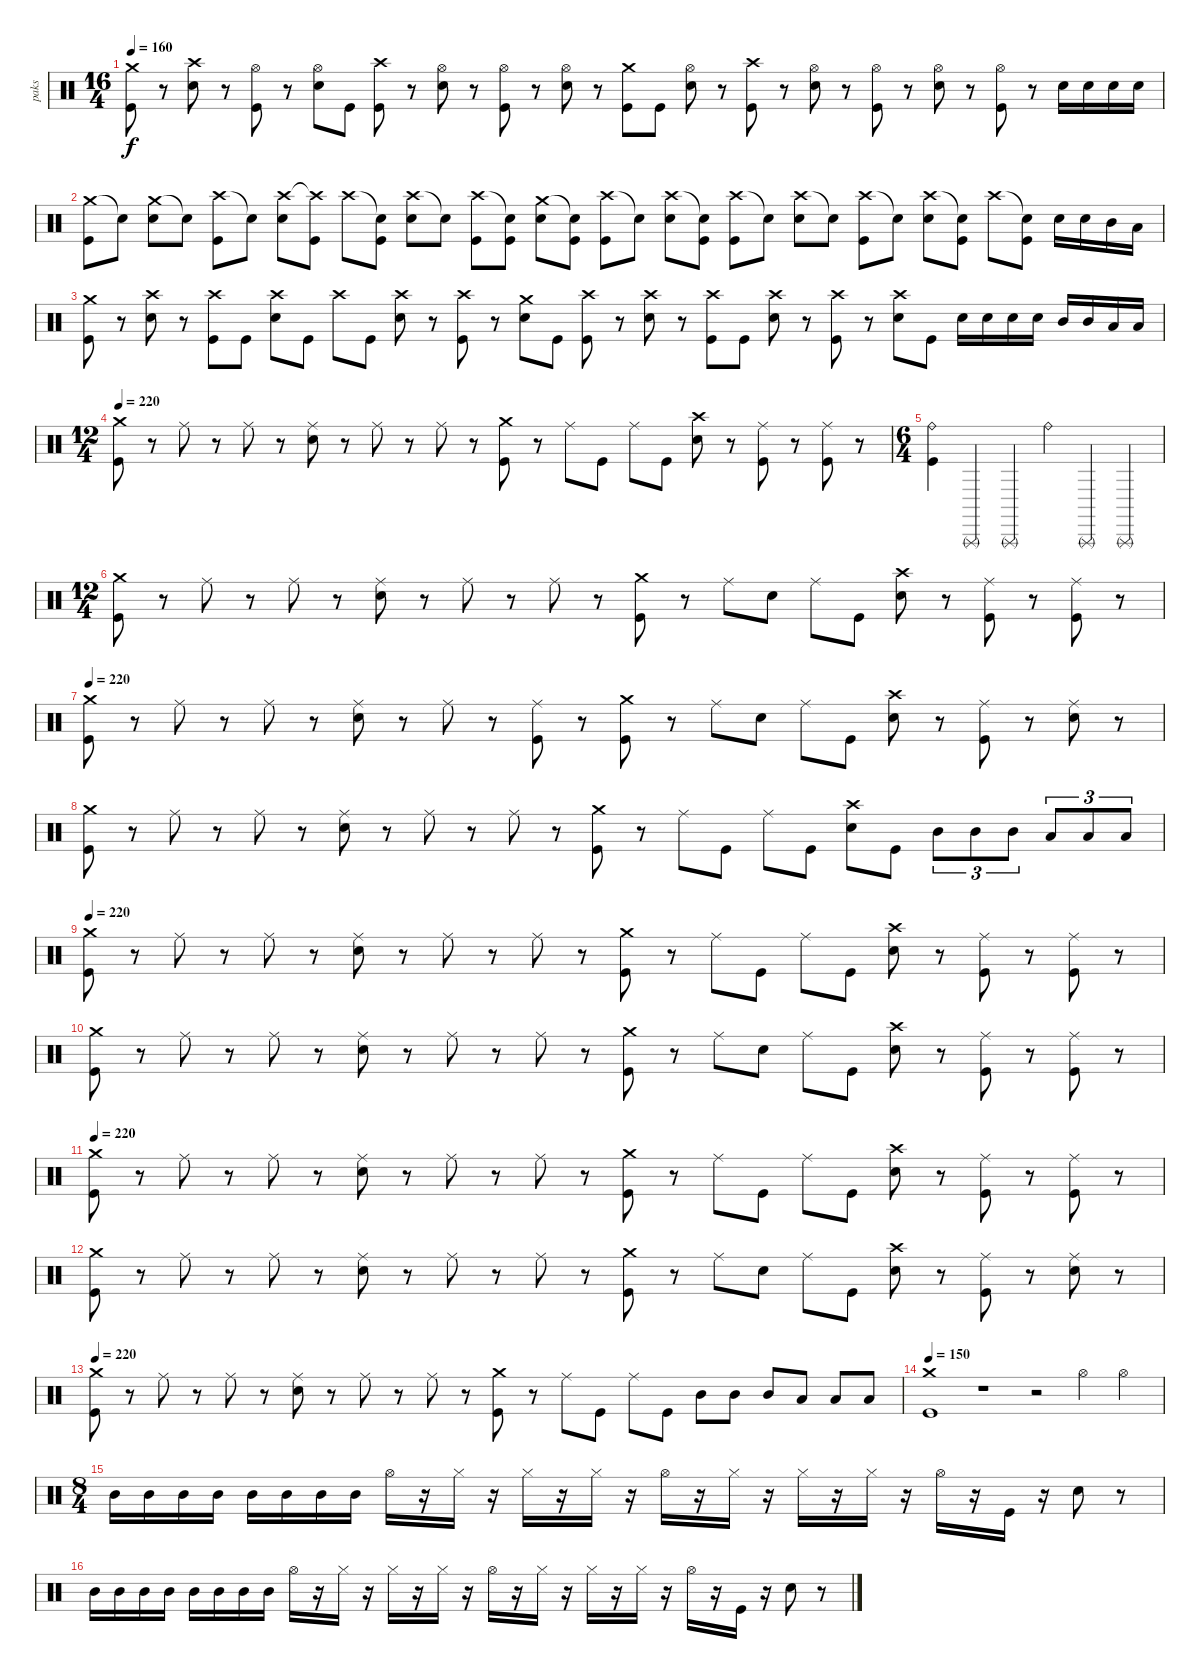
\track ("paks" "paks") {instrument percussion}
\staff {score}
\articulation defaults
\ts (16 4)
\tempo 160
\clef neutral
\ks c
("Crash medium (hit)" "Kick (hit)").8{dy f} r.8 ("Crash high (hit)" "Electric Snare (hit)").8 r.8 ("Hi-Hat (open)" "Kick (hit)").8 r.8 ("Hi-Hat (open)" "Electric Snare (hit)").8 "Kick (hit)".8 ("Crash high (hit)" "Kick (hit)").8 r.8 ("Hi-Hat (open)" "Electric Snare (hit)").8 r.8 ("Hi-Hat (open)" "Kick (hit)").8 r.8 ("Hi-Hat (open)" "Electric Snare (hit)").8 r.8 ("Crash medium (hit)" "Kick (hit)").8 "Kick (hit)".8 ("Hi-Hat (open)" "Electric Snare (hit)").8 r.8 ("Crash high (hit)" "Kick (hit)").8 r.8 ("Hi-Hat (open)" "Electric Snare (hit)").8 r.8 ("Hi-Hat (open)" "Kick (hit)").8 r.8 ("Hi-Hat (open)" "Electric Snare (hit)").8 r.8 ("Hi-Hat (open)" "Kick (hit)").8 r.8 "Electric Snare (hit)".16 "Electric Snare (hit)".16 "Electric Snare (hit)".16 "Electric Snare (hit)".16 |
("Crash medium (hit)" "Kick (hit)").8 "Snare (hit)"{t}.8 ("Crash medium (hit)" "Electric Snare (hit)").8 "Snare (hit)"{t}.8 ("Crash high (hit)" "Kick (hit)").8 "Snare (hit)"{t}.8 ("Crash high (hit)" "Electric Snare (hit)").8 ("Crash high (hit)"{t} "Kick (hit)").8 "Crash high (hit)".8 ("Snare (hit)"{t} "Kick (hit)").8 ("Crash high (hit)" "Electric Snare (hit)").8 "Snare (hit)"{t}.8 ("Crash high (hit)" "Kick (hit)").8 ("Snare (hit)"{t} "Kick (hit)").8 ("Crash medium (hit)" "Electric Snare (hit)").8 ("Snare (hit)"{t} "Kick (hit)").8 ("Crash high (hit)" "Kick (hit)").8 "Snare (hit)"{t}.8 ("Crash high (hit)" "Electric Snare (hit)").8 ("Snare (hit)"{t} "Kick (hit)").8 ("Crash high (hit)" "Kick (hit)").8 "Snare (hit)"{t}.8 ("Crash high (hit)" "Electric Snare (hit)").8 "Snare (hit)"{t}.8 ("Crash high (hit)" "Kick (hit)").8 "Snare (hit)"{t}.8 ("Crash high (hit)" "Electric Snare (hit)").8 ("Snare (hit)"{t} "Kick (hit)").8 "Crash high (hit)".8 ("Snare (hit)"{t} "Kick (hit)").8 "Electric Snare (hit)".16 "Electric Snare (hit)".16 "Mid Tom (hit)".16 "Low Floor Tom (hit)".16 |
("Crash medium (hit)" "Kick (hit)").8 r.8 ("Crash high (hit)" "Electric Snare (hit)").8 r.8 ("Crash high (hit)" "Kick (hit)").8 "Kick (hit)".8 ("Crash high (hit)" "Electric Snare (hit)").8 "Kick (hit)".8 "Crash high (hit)".8 "Kick (hit)".8 ("Crash high (hit)" "Electric Snare (hit)").8 r.8 ("Crash high (hit)" "Kick (hit)").8 r.8 ("Crash medium (hit)" "Electric Snare (hit)").8 "Kick (hit)".8 ("Crash high (hit)" "Kick (hit)").8 r.8 ("Crash high (hit)" "Electric Snare (hit)").8 r.8 ("Crash high (hit)" "Kick (hit)").8 "Kick (hit)".8 ("Crash high (hit)" "Electric Snare (hit)").8 r.8 ("Crash high (hit)" "Kick (hit)").8 r.8 ("Crash high (hit)" "Electric Snare (hit)").8 "Kick (hit)".8 "Electric Snare (hit)".16 "Electric Snare (hit)".16 "Electric Snare (hit)".16 "Electric Snare (hit)".16 "Mid Tom (hit)".16 "Mid Tom (hit)".16 "Low Floor Tom (hit)".16 "Low Floor Tom (hit)".16 |
\ts (12 4)
\tempo 220
("Crash medium (hit)" "Kick (hit)").8 r.8 "Ride (middle)".8 r.8 "Ride (middle)".8 r.8 ("Ride (middle)" "Electric Snare (hit)").8 r.8 "Ride (middle)".8 r.8 "Ride (middle)".8 r.8 ("Crash medium (hit)" "Kick (hit)").8 r.8 "Ride (middle)".8 "Kick (hit)".8 "Ride (middle)".8 "Kick (hit)".8 ("Crash high (hit)" "Electric Snare (hit)").8 r.8 ("Ride (middle)" "Kick (hit)").8 r.8 ("Ride (middle)" "Kick (hit)").8 r.8 |
\ts (6 4)
("Ride (bell)" "Kick (hit)").4 "Triangle (rnute)".4 "Triangle (rnute)".4 "Ride (bell)".4 "Triangle (rnute)".4 "Triangle (rnute)".4 |
\ts (12 4)
("Crash medium (hit)" "Kick (hit)").8 r.8 "Ride (middle)".8 r.8 "Ride (middle)".8 r.8 ("Ride (middle)" "Electric Snare (hit)").8 r.8 "Ride (middle)".8 r.8 "Ride (middle)".8 r.8 ("Crash medium (hit)" "Kick (hit)").8 r.8 "Ride (middle)".8 "Electric Snare (hit)".8 "Ride (middle)".8 "Kick (hit)".8 ("Crash high (hit)" "Electric Snare (hit)").8 r.8 ("Ride (middle)" "Kick (hit)").8 r.8 ("Ride (middle)" "Kick (hit)").8 r.8 |
\tempo 220
("Crash medium (hit)" "Kick (hit)").8 r.8 "Ride (middle)".8 r.8 "Ride (middle)".8 r.8 ("Ride (middle)" "Electric Snare (hit)").8 r.8 "Ride (middle)".8 r.8 ("Ride (middle)" "Kick (hit)").8 r.8 ("Crash medium (hit)" "Kick (hit)").8 r.8 "Ride (middle)".8 "Electric Snare (hit)".8 "Ride (middle)".8 "Kick (hit)".8 ("Crash high (hit)" "Electric Snare (hit)").8 r.8 ("Ride (middle)" "Kick (hit)").8 r.8 ("Ride (middle)" "Electric Snare (hit)").8 r.8 |
("Crash medium (hit)" "Kick (hit)").8 r.8 "Ride (middle)".8 r.8 "Ride (middle)".8 r.8 ("Ride (middle)" "Electric Snare (hit)").8 r.8 "Ride (middle)".8 r.8 "Ride (middle)".8 r.8 ("Crash medium (hit)" "Kick (hit)").8 r.8 "Ride (middle)".8 "Kick (hit)".8 "Ride (middle)".8 "Kick (hit)".8 ("Crash high (hit)" "Electric Snare (hit)").8 "Kick (hit)".8 "Mid Tom (hit)".8{tu (3 2)} "Mid Tom (hit)".8{tu (3 2)} "Mid Tom (hit)".8{tu (3 2)} "Low Floor Tom (hit)".8{tu (3 2)} "Low Floor Tom (hit)".8{tu (3 2)} "Low Floor Tom (hit)".8{tu (3 2)} |
\tempo 220
("Crash medium (hit)" "Kick (hit)").8 r.8 "Ride (middle)".8 r.8 "Ride (middle)".8 r.8 ("Ride (middle)" "Electric Snare (hit)").8 r.8 "Ride (middle)".8 r.8 "Ride (middle)".8 r.8 ("Crash medium (hit)" "Kick (hit)").8 r.8 "Ride (middle)".8 "Kick (hit)".8 "Ride (middle)".8 "Kick (hit)".8 ("Crash high (hit)" "Electric Snare (hit)").8 r.8 ("Ride (middle)" "Kick (hit)").8 r.8 ("Ride (middle)" "Kick (hit)").8 r.8 |
("Crash medium (hit)" "Kick (hit)").8 r.8 "Ride (middle)".8 r.8 "Ride (middle)".8 r.8 ("Ride (middle)" "Electric Snare (hit)").8 r.8 "Ride (middle)".8 r.8 "Ride (middle)".8 r.8 ("Crash medium (hit)" "Kick (hit)").8 r.8 "Ride (middle)".8 "Electric Snare (hit)".8 "Ride (middle)".8 "Kick (hit)".8 ("Crash high (hit)" "Electric Snare (hit)").8 r.8 ("Ride (middle)" "Kick (hit)").8 r.8 ("Ride (middle)" "Kick (hit)").8 r.8 |
\tempo 220
("Crash medium (hit)" "Kick (hit)").8 r.8 "Ride (middle)".8 r.8 "Ride (middle)".8 r.8 ("Ride (middle)" "Electric Snare (hit)").8 r.8 "Ride (middle)".8 r.8 "Ride (middle)".8 r.8 ("Crash medium (hit)" "Kick (hit)").8 r.8 "Ride (middle)".8 "Kick (hit)".8 "Ride (middle)".8 "Kick (hit)".8 ("Crash high (hit)" "Electric Snare (hit)").8 r.8 ("Ride (middle)" "Kick (hit)").8 r.8 ("Ride (middle)" "Kick (hit)").8 r.8 |
("Crash medium (hit)" "Kick (hit)").8 r.8 "Ride (middle)".8 r.8 "Ride (middle)".8 r.8 ("Ride (middle)" "Electric Snare (hit)").8 r.8 "Ride (middle)".8 r.8 "Ride (middle)".8 r.8 ("Crash medium (hit)" "Kick (hit)").8 r.8 "Ride (middle)".8 "Electric Snare (hit)".8 "Ride (middle)".8 "Kick (hit)".8 ("Crash high (hit)" "Electric Snare (hit)").8 r.8 ("Ride (middle)" "Kick (hit)").8 r.8 ("Ride (middle)" "Electric Snare (hit)").8 r.8 |
\tempo 220
("Crash medium (hit)" "Kick (hit)").8 r.8 "Ride (middle)".8 r.8 "Ride (middle)".8 r.8 ("Ride (middle)" "Electric Snare (hit)").8 r.8 "Ride (middle)".8 r.8 "Ride (middle)".8 r.8 ("Crash medium (hit)" "Kick (hit)").8 r.8 "Ride (middle)".8 "Kick (hit)".8 "Ride (middle)".8 "Kick (hit)".8 "Mid Tom (hit)".8 "Mid Tom (hit)".8 "Mid Tom (hit)".8 "Low Floor Tom (hit)".8 "Low Floor Tom (hit)".8 "Low Floor Tom (hit)".8 |
\tempo 150
("Crash medium (hit)" "Kick (hit)").1 r.1 r.2 "Hi-Hat (open)".4 "Hi-Hat (open)".4 |
\ts (8 4)
"Mid Tom (hit)".16 "Mid Tom (hit)".16 "Mid Tom (hit)".16 "Mid Tom (hit)".16 "Mid Tom (hit)".16 "Mid Tom (hit)".16 "Mid Tom (hit)".16 "Mid Tom (hit)".16 "Hi-Hat (open)".16 r.16 "Hi-Hat (closed)".16 r.16 "Hi-Hat (closed)".16 r.16 "Hi-Hat (closed)".16 r.16 "Hi-Hat (open)".16 r.16 "Hi-Hat (closed)".16 r.16 "Hi-Hat (closed)".16 r.16 "Hi-Hat (closed)".16 r.16 "Hi-Hat (open)".16 r.16 "Kick (hit)".16 r.16 "Electric Snare (hit)".8 r.8 |
"Mid Tom (hit)".16 "Mid Tom (hit)".16 "Mid Tom (hit)".16 "Mid Tom (hit)".16 "Mid Tom (hit)".16 "Mid Tom (hit)".16 "Mid Tom (hit)".16 "Mid Tom (hit)".16 "Hi-Hat (open)".16 r.16 "Hi-Hat (closed)".16 r.16 "Hi-Hat (closed)".16 r.16 "Hi-Hat (closed)".16 r.16 "Hi-Hat (open)".16 r.16 "Hi-Hat (closed)".16 r.16 "Hi-Hat (closed)".16 r.16 "Hi-Hat (closed)".16 r.16 "Hi-Hat (open)".16 r.16 "Kick (hit)".16 r.16 "Electric Snare (hit)".8 r.8
